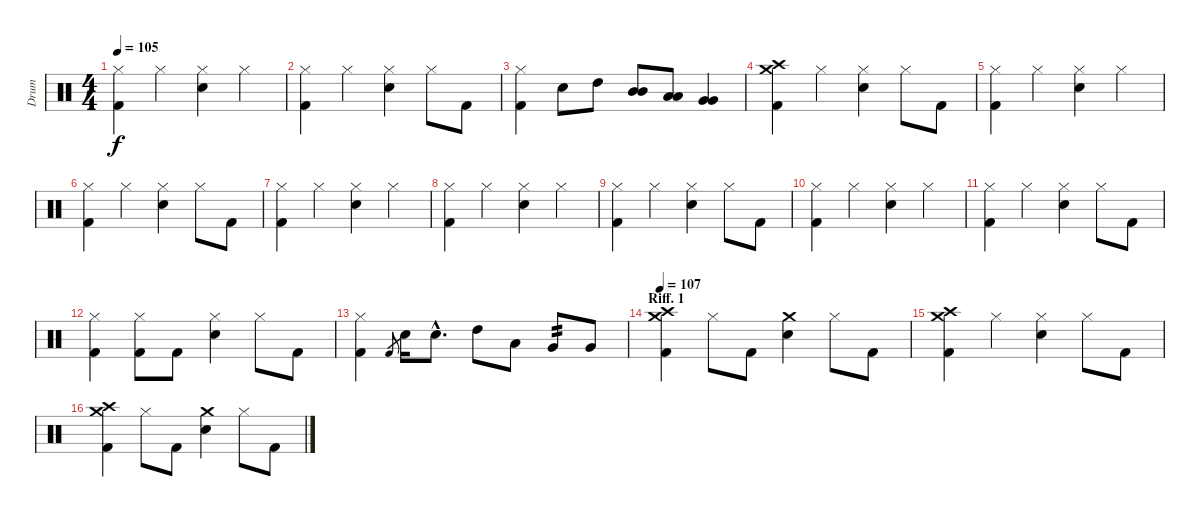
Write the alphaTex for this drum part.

\track ("Drum" "Drum") {instrument percussion}
\staff {score}
\articulation defaults
\ts (4 4)
\tempo 105
\clef neutral
\ks c
("Hi-Hat (closed)" "Kick (hit) 2").4{dy f} "Hi-Hat (closed)".4 ("Hi-Hat (closed)" "Snare (hit) 2").4 "Hi-Hat (closed)".4 |
("Hi-Hat (closed)" "Kick (hit) 2").4 "Hi-Hat (closed)".4 ("Hi-Hat (closed)" "Snare (hit) 2").4 "Hi-Hat (closed)".8 "Kick (hit) 2".8 |
("Hi-Hat (closed)" "Kick (hit) 2").4 "Snare (hit) 2".8 "High Tom (hit)".8 ("Mid Tom (hit)" "Mid Tom (hit)").8 ("Low Tom (hit)" "Low Tom (hit)").8 ("Very Low Tom (hit)" "Very Low Tom (hit)").4 |
\section ("" "")
("Kick (hit) 2" "Crash medium (hit)" "Crash high (hit)").4 "Hi-Hat (closed)".4 ("Hi-Hat (closed)" "Snare (hit) 2").4 "Hi-Hat (closed)".8 "Kick (hit) 2".8 |
("Hi-Hat (closed)" "Kick (hit) 2").4 "Hi-Hat (closed)".4 ("Hi-Hat (closed)" "Snare (hit) 2").4 "Hi-Hat (closed)".4 |
("Hi-Hat (closed)" "Kick (hit) 2").4 "Hi-Hat (closed)".4 ("Hi-Hat (closed)" "Snare (hit) 2").4 "Hi-Hat (closed)".8 "Kick (hit) 2".8 |
("Hi-Hat (closed)" "Kick (hit) 2").4 "Hi-Hat (closed)".4 ("Hi-Hat (closed)" "Snare (hit) 2").4 "Hi-Hat (closed)".4 |
("Hi-Hat (closed)" "Kick (hit) 2").4 "Hi-Hat (closed)".4 ("Hi-Hat (closed)" "Snare (hit) 2").4 "Hi-Hat (closed)".4 |
("Hi-Hat (closed)" "Kick (hit) 2").4 "Hi-Hat (closed)".4 ("Hi-Hat (closed)" "Snare (hit) 2").4 "Hi-Hat (closed)".8 "Kick (hit) 2".8 |
("Hi-Hat (closed)" "Kick (hit) 2").4 "Hi-Hat (closed)".4 ("Hi-Hat (closed)" "Snare (hit) 2").4 "Hi-Hat (closed)".4 |
("Hi-Hat (closed)" "Kick (hit) 2").4 "Hi-Hat (closed)".4 ("Hi-Hat (closed)" "Snare (hit) 2").4 "Hi-Hat (closed)".8 "Kick (hit) 2".8 |
("Hi-Hat (closed)" "Kick (hit) 2").4 ("Hi-Hat (closed)" "Kick (hit) 2").8 "Kick (hit) 2".8 ("Hi-Hat (closed)" "Snare (hit) 2").4 "Hi-Hat (closed)".8 "Kick (hit) 2".8 |
("Hi-Hat (closed)" "Kick (hit) 2").4 "Kick (hit) 2".8{gr} "Snare (hit) 2".16 "Snare (hit) 2"{hac}.8{d} "High Tom (hit)".8 "Low Tom (hit)".8 "Very Low Tom (hit)".8{tp 2} "Very Low Tom (hit)".8 |
\section ("" "Riff. 1")
\tempo 107
("Kick (hit) 2" "Crash high (hit)" "Crash medium (hit)").4 "Hi-Hat (closed)".8 "Kick (hit) 2".8 ("Snare (hit) 2" "Crash medium (hit)").4 "Hi-Hat (closed)".8 "Kick (hit) 2".8 |
("Kick (hit) 2" "Crash high (hit)" "Crash medium (hit)").4 "Hi-Hat (closed)".4 ("Hi-Hat (closed)" "Snare (hit) 2").4 "Hi-Hat (closed)".8 "Kick (hit) 2".8 |
("Kick (hit) 2" "Crash high (hit)" "Crash medium (hit)").4 "Hi-Hat (closed)".8 "Kick (hit) 2".8 ("Snare (hit) 2" "Crash medium (hit)").4 "Hi-Hat (closed)".8 "Kick (hit) 2".8
